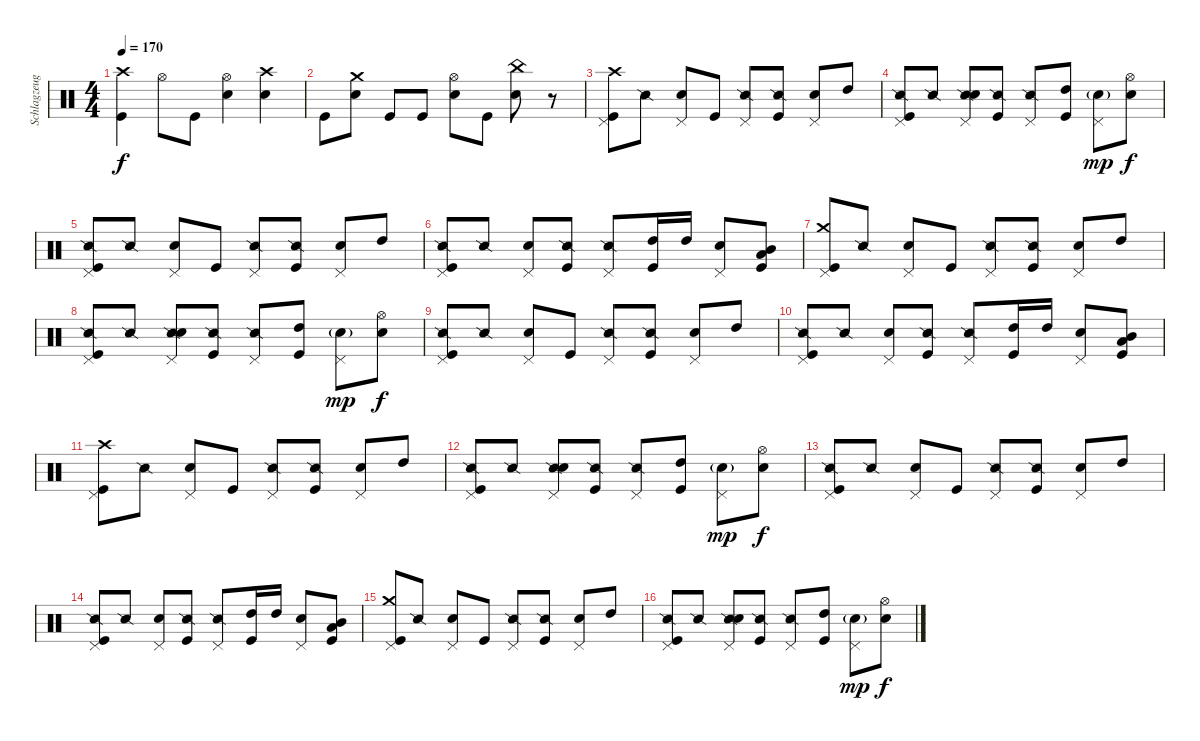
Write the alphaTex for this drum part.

\track ("Schlagzeug" "Schlagzeug") {instrument percussion}
\staff {score}
\articulation defaults
\ts (4 4)
\tempo 170
\clef neutral
\ks c
("Crash high (hit)" "Kick (hit)").4{dy f} "Hi-Hat (open)".8 "Kick (hit)".8 ("Hi-Hat (open)" "Electric Snare (hit)").4 ("Crash high (hit)" "Electric Snare (hit)").4 |
"Kick (hit)".8 ("Crash medium (hit)" "Electric Snare (hit)").8 "Kick (hit)".8 "Kick (hit)".8 ("Hi-Hat (open)" "Electric Snare (hit)").8 "Kick (hit)".8 ("China (hit)" "Electric Snare (hit)").8 r.8 |
("Crash high (hit)" "Pedal Hi-Hat (hit)" "Kick (hit)").8 "Snare (side stick) 2".8 ("Electric Snare (hit)" "Pedal Hi-Hat (hit)").8 "Kick (hit)".8 ("Snare (side stick) 2" "Pedal Hi-Hat (hit)").8 ("Snare (side stick) 2" "Kick (hit)").8 ("Electric Snare (hit)" "Pedal Hi-Hat (hit)").8 "High Tom (hit)".8 |
("Snare (side stick) 2" "Pedal Hi-Hat (hit)" "Kick (hit)").8 "Snare (side stick) 2".8 ("Snare (side stick) 2" "Electric Snare (hit)" "Pedal Hi-Hat (hit)").8 ("Snare (side stick) 2" "Kick (hit)").8 ("Snare (side stick) 2" "Pedal Hi-Hat (hit)").8 ("High Tom (hit)" "Kick (hit)").8 ("Electric Snare (hit)"{g} "Pedal Hi-Hat (hit)").8{dy mp} ("Hi-Hat (open)" "Electric Snare (hit)").8{dy f} |
("Snare (side stick) 2" "Pedal Hi-Hat (hit)" "Kick (hit)").8 "Snare (side stick) 2".8 ("Electric Snare (hit)" "Pedal Hi-Hat (hit)").8 "Kick (hit)".8 ("Snare (side stick) 2" "Pedal Hi-Hat (hit)").8 ("Snare (side stick) 2" "Kick (hit)").8 ("Electric Snare (hit)" "Pedal Hi-Hat (hit)").8 "High Tom (hit)".8 |
("Snare (side stick) 2" "Pedal Hi-Hat (hit)" "Kick (hit)").8 "Snare (side stick) 2".8 ("Electric Snare (hit)" "Pedal Hi-Hat (hit)").8 ("Snare (side stick) 2" "Kick (hit)").8 ("Snare (side stick) 2" "Pedal Hi-Hat (hit)").8 ("High Tom (hit)" "Kick (hit)").16 "High Tom (hit)".16 ("Electric Snare (hit)" "Pedal Hi-Hat (hit)").8 ("Mid Tom (hit)" "Low Tom (hit)" "Kick (hit)").8 |
("Crash medium (hit)" "Pedal Hi-Hat (hit)" "Kick (hit)").8 "Snare (side stick) 2".8 ("Electric Snare (hit)" "Pedal Hi-Hat (hit)").8 "Kick (hit)".8 ("Snare (side stick) 2" "Pedal Hi-Hat (hit)").8 ("Snare (side stick) 2" "Kick (hit)").8 ("Electric Snare (hit)" "Pedal Hi-Hat (hit)").8 "High Tom (hit)".8 |
("Snare (side stick) 2" "Pedal Hi-Hat (hit)" "Kick (hit)").8 "Snare (side stick) 2".8 ("Snare (side stick) 2" "Electric Snare (hit)" "Pedal Hi-Hat (hit)").8 ("Snare (side stick) 2" "Kick (hit)").8 ("Snare (side stick) 2" "Pedal Hi-Hat (hit)").8 ("High Tom (hit)" "Kick (hit)").8 ("Electric Snare (hit)"{g} "Pedal Hi-Hat (hit)").8{dy mp} ("Hi-Hat (open)" "Electric Snare (hit)").8{dy f} |
("Snare (side stick) 2" "Pedal Hi-Hat (hit)" "Kick (hit)").8 "Snare (side stick) 2".8 ("Electric Snare (hit)" "Pedal Hi-Hat (hit)").8 "Kick (hit)".8 ("Snare (side stick) 2" "Pedal Hi-Hat (hit)").8 ("Snare (side stick) 2" "Kick (hit)").8 ("Electric Snare (hit)" "Pedal Hi-Hat (hit)").8 "High Tom (hit)".8 |
("Snare (side stick) 2" "Pedal Hi-Hat (hit)" "Kick (hit)").8 "Snare (side stick) 2".8 ("Electric Snare (hit)" "Pedal Hi-Hat (hit)").8 ("Snare (side stick) 2" "Kick (hit)").8 ("Snare (side stick) 2" "Pedal Hi-Hat (hit)").8 ("High Tom (hit)" "Kick (hit)").16 "High Tom (hit)".16 ("Electric Snare (hit)" "Pedal Hi-Hat (hit)").8 ("Mid Tom (hit)" "Low Tom (hit)" "Kick (hit)").8 |
("Crash high (hit)" "Pedal Hi-Hat (hit)" "Kick (hit)").8 "Snare (side stick) 2".8 ("Electric Snare (hit)" "Pedal Hi-Hat (hit)").8 "Kick (hit)".8 ("Snare (side stick) 2" "Pedal Hi-Hat (hit)").8 ("Snare (side stick) 2" "Kick (hit)").8 ("Electric Snare (hit)" "Pedal Hi-Hat (hit)").8 "High Tom (hit)".8 |
("Snare (side stick) 2" "Pedal Hi-Hat (hit)" "Kick (hit)").8 "Snare (side stick) 2".8 ("Snare (side stick) 2" "Electric Snare (hit)" "Pedal Hi-Hat (hit)").8 ("Snare (side stick) 2" "Kick (hit)").8 ("Snare (side stick) 2" "Pedal Hi-Hat (hit)").8 ("High Tom (hit)" "Kick (hit)").8 ("Electric Snare (hit)"{g} "Pedal Hi-Hat (hit)").8{dy mp} ("Hi-Hat (open)" "Electric Snare (hit)").8{dy f} |
("Snare (side stick) 2" "Pedal Hi-Hat (hit)" "Kick (hit)").8 "Snare (side stick) 2".8 ("Electric Snare (hit)" "Pedal Hi-Hat (hit)").8 "Kick (hit)".8 ("Snare (side stick) 2" "Pedal Hi-Hat (hit)").8 ("Snare (side stick) 2" "Kick (hit)").8 ("Electric Snare (hit)" "Pedal Hi-Hat (hit)").8 "High Tom (hit)".8 |
("Snare (side stick) 2" "Pedal Hi-Hat (hit)" "Kick (hit)").8 "Snare (side stick) 2".8 ("Electric Snare (hit)" "Pedal Hi-Hat (hit)").8 ("Snare (side stick) 2" "Kick (hit)").8 ("Snare (side stick) 2" "Pedal Hi-Hat (hit)").8 ("High Tom (hit)" "Kick (hit)").16 "High Tom (hit)".16 ("Electric Snare (hit)" "Pedal Hi-Hat (hit)").8 ("Mid Tom (hit)" "Low Tom (hit)" "Kick (hit)").8 |
("Crash medium (hit)" "Pedal Hi-Hat (hit)" "Kick (hit)").8 "Snare (side stick) 2".8 ("Electric Snare (hit)" "Pedal Hi-Hat (hit)").8 "Kick (hit)".8 ("Snare (side stick) 2" "Pedal Hi-Hat (hit)").8 ("Snare (side stick) 2" "Kick (hit)").8 ("Electric Snare (hit)" "Pedal Hi-Hat (hit)").8 "High Tom (hit)".8 |
("Snare (side stick) 2" "Pedal Hi-Hat (hit)" "Kick (hit)").8 "Snare (side stick) 2".8 ("Snare (side stick) 2" "Electric Snare (hit)" "Pedal Hi-Hat (hit)").8 ("Snare (side stick) 2" "Kick (hit)").8 ("Snare (side stick) 2" "Pedal Hi-Hat (hit)").8 ("High Tom (hit)" "Kick (hit)").8 ("Electric Snare (hit)"{g} "Pedal Hi-Hat (hit)").8{dy mp} ("Hi-Hat (open)" "Electric Snare (hit)").8{dy f}
